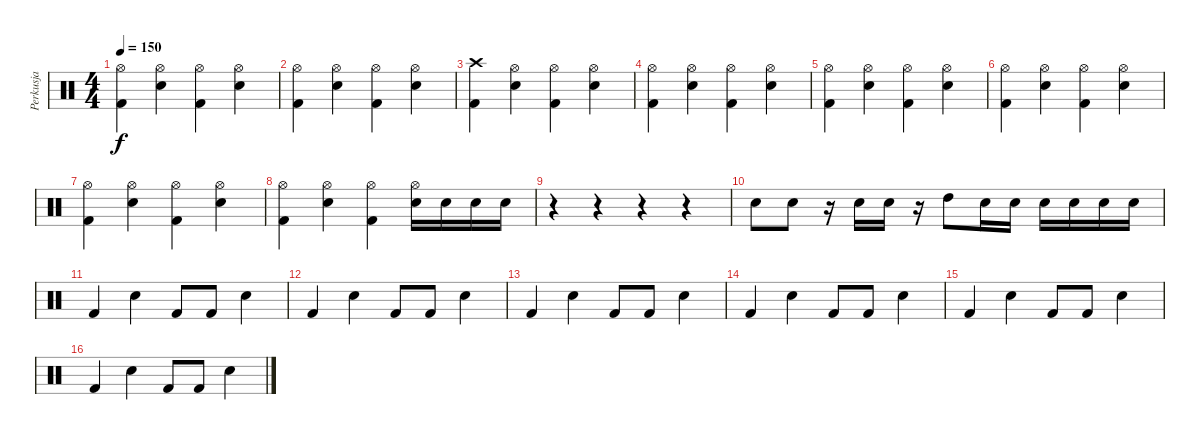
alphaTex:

\track ("Perkusja" "Perkusja") {instrument percussion}
\staff {score}
\articulation defaults
\ts (4 4)
\tempo 150
\clef neutral
\ks c
("Hi-Hat (open)" "Kick (hit) 2").4{dy f} ("Hi-Hat (open)" "Electric Snare (hit)").4 ("Hi-Hat (open)" "Kick (hit) 2").4 ("Hi-Hat (open)" "Electric Snare (hit)").4 |
("Hi-Hat (open)" "Kick (hit) 2").4 ("Hi-Hat (open)" "Electric Snare (hit)").4 ("Hi-Hat (open)" "Kick (hit) 2").4 ("Hi-Hat (open)" "Electric Snare (hit)").4 |
("Crash high (hit)" "Kick (hit) 2").4 ("Hi-Hat (open)" "Electric Snare (hit)").4 ("Hi-Hat (open)" "Kick (hit) 2").4 ("Hi-Hat (open)" "Electric Snare (hit)").4 |
("Hi-Hat (open)" "Kick (hit) 2").4 ("Hi-Hat (open)" "Electric Snare (hit)").4 ("Hi-Hat (open)" "Kick (hit) 2").4 ("Hi-Hat (open)" "Electric Snare (hit)").4 |
("Hi-Hat (open)" "Kick (hit) 2").4 ("Hi-Hat (open)" "Electric Snare (hit)").4 ("Hi-Hat (open)" "Kick (hit) 2").4 ("Hi-Hat (open)" "Electric Snare (hit)").4 |
("Hi-Hat (open)" "Kick (hit) 2").4 ("Hi-Hat (open)" "Electric Snare (hit)").4 ("Hi-Hat (open)" "Kick (hit) 2").4 ("Hi-Hat (open)" "Electric Snare (hit)").4 |
("Hi-Hat (open)" "Kick (hit) 2").4 ("Hi-Hat (open)" "Electric Snare (hit)").4 ("Hi-Hat (open)" "Kick (hit) 2").4 ("Hi-Hat (open)" "Electric Snare (hit)").4 |
("Hi-Hat (open)" "Kick (hit) 2").4 ("Hi-Hat (open)" "Electric Snare (hit)").4 ("Hi-Hat (open)" "Kick (hit) 2").4 ("Hi-Hat (open)" "Electric Snare (hit)").16 "Electric Snare (hit)".16 "Electric Snare (hit)".16 "Electric Snare (hit)".16 |
r.4 r.4 r.4 r.4 |
"Electric Snare (hit)".8 "Electric Snare (hit)".8 r.16 "Electric Snare (hit)".16 "Electric Snare (hit)".16 r.16 "High Tom (hit)".8 "Electric Snare (hit)".16 "Electric Snare (hit)".16 "Electric Snare (hit)".16 "Electric Snare (hit)".16 "Electric Snare (hit)".16 "Electric Snare (hit)".16 |
"Kick (hit) 2".4 "Electric Snare (hit)".4 "Kick (hit) 2".8 "Kick (hit) 2".8 "Electric Snare (hit)".4 |
"Kick (hit) 2".4 "Electric Snare (hit)".4 "Kick (hit) 2".8 "Kick (hit) 2".8 "Electric Snare (hit)".4 |
"Kick (hit) 2".4 "Electric Snare (hit)".4 "Kick (hit) 2".8 "Kick (hit) 2".8 "Electric Snare (hit)".4 |
"Kick (hit) 2".4 "Electric Snare (hit)".4 "Kick (hit) 2".8 "Kick (hit) 2".8 "Electric Snare (hit)".4 |
"Kick (hit) 2".4 "Electric Snare (hit)".4 "Kick (hit) 2".8 "Kick (hit) 2".8 "Electric Snare (hit)".4 |
"Kick (hit) 2".4 "Electric Snare (hit)".4 "Kick (hit) 2".8 "Kick (hit) 2".8 "Electric Snare (hit)".4
